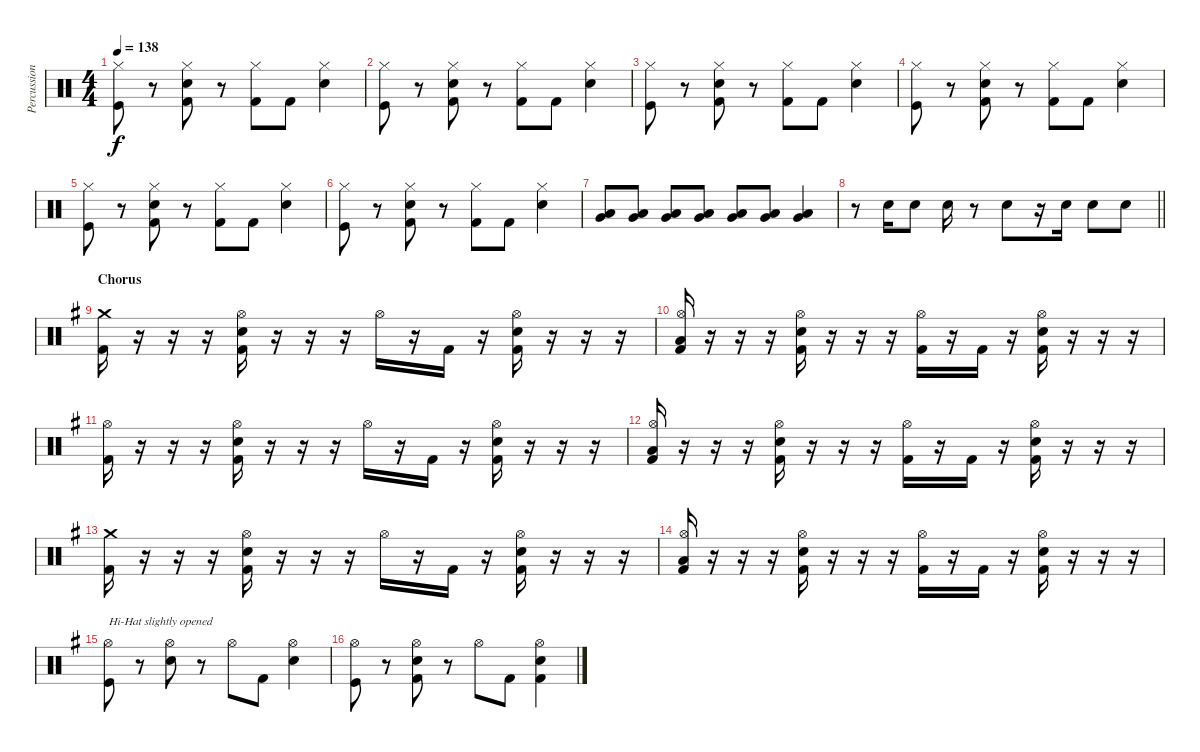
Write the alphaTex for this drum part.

\track ("Percussion" "Percussion") {instrument percussion}
\staff {score}
\articulation defaults
\ts (4 4)
\tempo 138
\clef neutral
\ks c
("Hi-Hat (closed)" "Kick (hit)").8{dy f} r.8 ("Hi-Hat (closed)" "Electric Snare (hit)" "Kick (hit) 2").8 r.8 ("Hi-Hat (closed)" "Kick (hit) 2").8 "Kick (hit) 2".8 ("Hi-Hat (closed)" "Electric Snare (hit)").4 |
("Hi-Hat (closed)" "Kick (hit)").8 r.8 ("Hi-Hat (closed)" "Electric Snare (hit)" "Kick (hit) 2").8 r.8 ("Hi-Hat (closed)" "Kick (hit) 2").8 "Kick (hit) 2".8 ("Hi-Hat (closed)" "Electric Snare (hit)").4 |
("Hi-Hat (closed)" "Kick (hit)").8 r.8 ("Hi-Hat (closed)" "Electric Snare (hit)" "Kick (hit) 2").8 r.8 ("Hi-Hat (closed)" "Kick (hit) 2").8 "Kick (hit) 2".8 ("Hi-Hat (closed)" "Electric Snare (hit)").4 |
("Hi-Hat (closed)" "Kick (hit)").8 r.8 ("Hi-Hat (closed)" "Electric Snare (hit)" "Kick (hit) 2").8 r.8 ("Hi-Hat (closed)" "Kick (hit) 2").8 "Kick (hit) 2".8 ("Hi-Hat (closed)" "Electric Snare (hit)").4 |
("Hi-Hat (closed)" "Kick (hit)").8 r.8 ("Hi-Hat (closed)" "Electric Snare (hit)" "Kick (hit) 2").8 r.8 ("Hi-Hat (closed)" "Kick (hit) 2").8 "Kick (hit) 2".8 ("Hi-Hat (closed)" "Electric Snare (hit)").4 |
("Hi-Hat (closed)" "Kick (hit)").8 r.8 ("Hi-Hat (closed)" "Electric Snare (hit)" "Kick (hit) 2").8 r.8 ("Hi-Hat (closed)" "Kick (hit) 2").8 "Kick (hit) 2".8 ("Hi-Hat (closed)" "Electric Snare (hit)").4 |
("Very Low Tom (hit)" "Low Floor Tom (hit)").8 ("Very Low Tom (hit)" "Low Floor Tom (hit)").8 ("Very Low Tom (hit)" "Low Floor Tom (hit)").8 ("Very Low Tom (hit)" "Low Floor Tom (hit)").8 ("Very Low Tom (hit)" "Low Floor Tom (hit)").8 ("Very Low Tom (hit)" "Low Floor Tom (hit)").8 ("Very Low Tom (hit)" "Low Floor Tom (hit)").4 |
\barLineRight lightlight
r.8 "Electric Snare (hit)".16 "Electric Snare (hit)".8 "Electric Snare (hit)".16 r.8 "Electric Snare (hit)".8 r.16 "Electric Snare (hit)".16 "Electric Snare (hit)".8 "Electric Snare (hit)".8 |
\section ("" "Chorus")
\ks g
("Crash medium (hit)" "Kick (hit) 2").16 r.16 r.16 r.16 ("Hi-Hat (open)" "Electric Snare (hit)" "Kick (hit) 2").16 r.16 r.16 r.16 "Hi-Hat (open)".16 r.16 "Kick (hit) 2".16 r.16 ("Hi-Hat (open)" "Electric Snare (hit)" "Kick (hit) 2").16 r.16 r.16 r.16 |
("Hi-Hat (open)" "Low Tom (hit)" "Kick (hit) 2").16 r.16 r.16 r.16 ("Hi-Hat (open)" "Electric Snare (hit)" "Kick (hit) 2").16 r.16 r.16 r.16 ("Hi-Hat (open)" "Kick (hit) 2").16 r.16 "Kick (hit) 2".16 r.16 ("Hi-Hat (open)" "Electric Snare (hit)" "Kick (hit) 2").16 r.16 r.16 r.16 |
("Hi-Hat (open)" "Kick (hit) 2").16 r.16 r.16 r.16 ("Hi-Hat (open)" "Electric Snare (hit)" "Kick (hit) 2").16 r.16 r.16 r.16 "Hi-Hat (open)".16 r.16 "Kick (hit) 2".16 r.16 ("Hi-Hat (open)" "Electric Snare (hit)" "Kick (hit) 2").16 r.16 r.16 r.16 |
("Hi-Hat (open)" "Low Tom (hit)" "Kick (hit) 2").16 r.16 r.16 r.16 ("Hi-Hat (open)" "Electric Snare (hit)" "Kick (hit) 2").16 r.16 r.16 r.16 ("Hi-Hat (open)" "Kick (hit) 2").16 r.16 "Kick (hit) 2".16 r.16 ("Hi-Hat (open)" "Electric Snare (hit)" "Kick (hit) 2").16 r.16 r.16 r.16 |
("Crash medium (hit)" "Kick (hit) 2").16 r.16 r.16 r.16 ("Hi-Hat (open)" "Electric Snare (hit)" "Kick (hit) 2").16 r.16 r.16 r.16 "Hi-Hat (open)".16 r.16 "Kick (hit) 2".16 r.16 ("Hi-Hat (open)" "Electric Snare (hit)" "Kick (hit) 2").16 r.16 r.16 r.16 |
("Hi-Hat (open)" "Low Tom (hit)" "Kick (hit) 2").16 r.16 r.16 r.16 ("Hi-Hat (open)" "Electric Snare (hit)" "Kick (hit) 2").16 r.16 r.16 r.16 ("Hi-Hat (open)" "Kick (hit) 2").16 r.16 "Kick (hit) 2".16 r.16 ("Hi-Hat (open)" "Electric Snare (hit)" "Kick (hit) 2").16 r.16 r.16 r.16 |
("Hi-Hat (open)" "Kick (hit)").8{txt "Hi-Hat slightly opened"} r.8 ("Hi-Hat (open)" "Electric Snare (hit)").8 r.8 "Hi-Hat (open)".8 "Kick (hit) 2".8 ("Hi-Hat (open)" "Electric Snare (hit)").4 |
("Hi-Hat (open)" "Kick (hit)").8 r.8 ("Hi-Hat (open)" "Electric Snare (hit)" "Kick (hit) 2").8 r.8 "Hi-Hat (open)".8 "Kick (hit) 2".8 ("Hi-Hat (open)" "Electric Snare (hit)" "Kick (hit) 2").4
